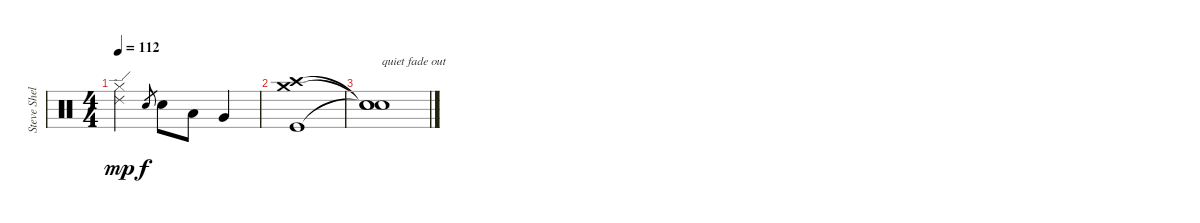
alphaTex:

\track ("Steve Shelley" "Steve Shel") {instrument percussion}
\staff {score}
\articulation defaults
\ts (4 4)
\tempo 112
\clef neutral
\ks c
("Ride (edge) 2" "Hi-Hat (closed)").2{dy mp} "Electric Snare (hit)".8{gr dy f} "Electric Snare (hit)".8 "Low Tom (hit)".8 "Very Low Tom (hit)".4 |
("Crash high (hit)" "Crash medium (hit)" "Kick (hit)").1 |
("Snare (hit)"{t} "Snare (hit)"{t} "Snare (hit)"{t}).1{txt "quiet fade out" volume 0}
